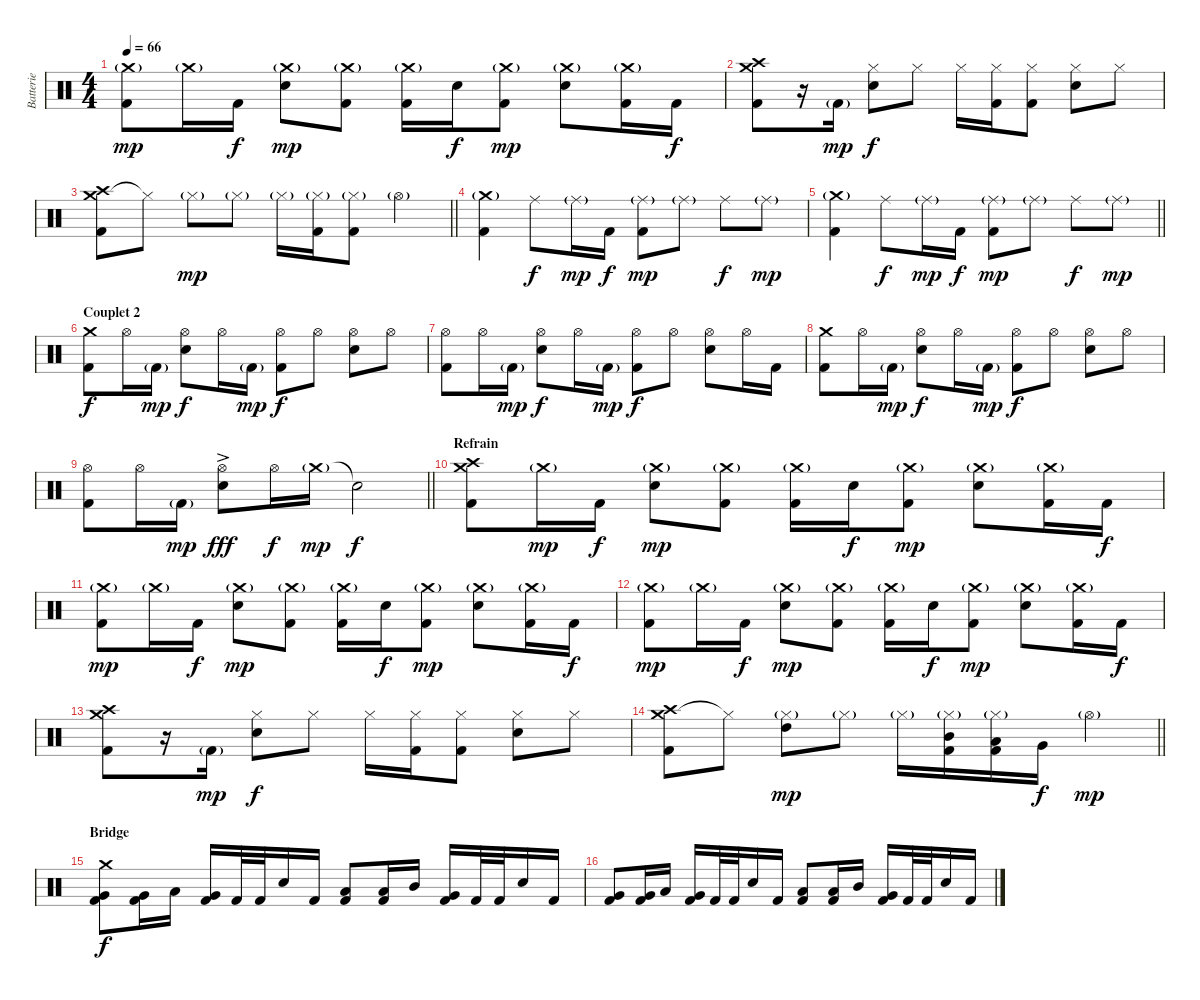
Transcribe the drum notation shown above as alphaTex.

\track ("Batterie" "Batterie") {instrument percussion}
\staff {score}
\articulation defaults
\ts (4 4)
\tempo 66
\clef neutral
\ks c
("Crash medium (hit)"{g} "Kick (hit) 2").8{dy mp} "Crash medium (hit)"{g}.16 "Kick (hit) 2".16{dy f} ("Crash medium (hit)"{g} "Electric Snare (hit)").8{dy mp} ("Crash medium (hit)"{g} "Kick (hit) 2").8 ("Crash medium (hit)"{g} "Kick (hit) 2").16 "Electric Snare (hit)".16{dy f} ("Crash medium (hit)"{g} "Kick (hit) 2").8{dy mp} ("Crash medium (hit)"{g} "Electric Snare (hit)").8 ("Crash medium (hit)"{g} "Kick (hit) 2").16 "Kick (hit) 2".16{dy f} |
("Crash medium (hit)" "Crash high (hit)" "Kick (hit) 2").8 r.16 "Kick (hit) 2"{g}.16{dy mp} ("Hi-Hat (closed)" "Electric Snare (hit)").8{dy f} "Hi-Hat (closed)".8 "Hi-Hat (closed)".16 ("Hi-Hat (closed)" "Kick (hit) 2").16 ("Hi-Hat (closed)" "Kick (hit) 2").8 ("Hi-Hat (closed)" "Electric Snare (hit)").8 "Hi-Hat (closed)".8 |
\barLineRight lightlight
("Crash medium (hit)" "Crash high (hit)" "Kick (hit) 2").8 "Hi-Hat (closed)"{t}.8 "Hi-Hat (closed)"{g}.8{dy mp} "Hi-Hat (closed)"{g}.8 "Hi-Hat (closed)"{g}.16 ("Hi-Hat (closed)"{g} "Kick (hit) 2").16 ("Hi-Hat (closed)"{g} "Kick (hit) 2").8 "Hi-Hat (open)"{g}.4 |
("Crash medium (hit)"{g} "Kick (hit) 2").4 "Ride (middle)".8{dy f} "Ride (middle)"{g}.16{dy mp} "Kick (hit) 2".16{dy f} ("Ride (middle)"{g} "Kick (hit) 2").8{dy mp} "Ride (middle)"{g}.8 "Ride (middle)".8{dy f} "Ride (middle)"{g}.8{dy mp} |
\barLineRight lightlight
("Crash medium (hit)"{g} "Kick (hit) 2").4 "Ride (middle)".8{dy f} "Ride (middle)"{g}.16{dy mp} "Kick (hit) 2".16{dy f} ("Ride (middle)"{g} "Kick (hit) 2").8{dy mp} "Ride (middle)"{g}.8 "Ride (middle)".8{dy f} "Ride (middle)"{g}.8{dy mp} |
\section ("" "Couplet 2")
("Crash medium (hit)" "Kick (hit) 2").8{dy f} "Hi-Hat (open)".16 "Kick (hit) 2"{g}.16{dy mp} ("Hi-Hat (open)" "Electric Snare (hit)").8{dy f} "Hi-Hat (open)".16 "Kick (hit) 2"{g}.16{dy mp} ("Hi-Hat (open)" "Kick (hit) 2").8{dy f} "Hi-Hat (open)".8 ("Hi-Hat (open)" "Electric Snare (hit)").8 "Hi-Hat (open)".8 |
("Hi-Hat (open)" "Kick (hit) 2").8 "Hi-Hat (open)".16 "Kick (hit) 2"{g}.16{dy mp} ("Hi-Hat (open)" "Electric Snare (hit)").8{dy f} "Hi-Hat (open)".16 "Kick (hit) 2"{g}.16{dy mp} ("Hi-Hat (open)" "Kick (hit) 2").8{dy f} "Hi-Hat (open)".8 ("Hi-Hat (open)" "Electric Snare (hit)").8 "Hi-Hat (open)".16 "Kick (hit) 2".16 |
("Crash medium (hit)" "Kick (hit) 2").8 "Hi-Hat (open)".16 "Kick (hit) 2"{g}.16{dy mp} ("Hi-Hat (open)" "Electric Snare (hit)").8{dy f} "Hi-Hat (open)".16 "Kick (hit) 2"{g}.16{dy mp} ("Hi-Hat (open)" "Kick (hit) 2").8{dy f} "Hi-Hat (open)".8 ("Hi-Hat (open)" "Electric Snare (hit)").8 "Hi-Hat (open)".8 |
\barLineRight lightlight
("Hi-Hat (open)" "Kick (hit) 2").8 "Hi-Hat (open)".16 "Kick (hit) 2"{g}.16{dy mp} ("Hi-Hat (open)"{ac} "Electric Snare (hit)").8{dy fff} "Hi-Hat (open)".16{dy f} "Crash medium (hit)"{g}.16{dy mp} "Snare (hit)"{t}.2{dy f} |
\section ("" "Refrain")
("Crash medium (hit)" "Crash high (hit)" "Kick (hit) 2").8 "Crash medium (hit)"{g}.16{dy mp} "Kick (hit) 2".16{dy f} ("Crash medium (hit)"{g} "Electric Snare (hit)").8{dy mp} ("Crash medium (hit)"{g} "Kick (hit) 2").8 ("Crash medium (hit)"{g} "Kick (hit) 2").16 "Electric Snare (hit)".16{dy f} ("Crash medium (hit)"{g} "Kick (hit) 2").8{dy mp} ("Crash medium (hit)"{g} "Electric Snare (hit)").8 ("Crash medium (hit)"{g} "Kick (hit) 2").16 "Kick (hit) 2".16{dy f} |
("Crash medium (hit)"{g} "Kick (hit) 2").8{dy mp} "Crash medium (hit)"{g}.16 "Kick (hit) 2".16{dy f} ("Crash medium (hit)"{g} "Electric Snare (hit)").8{dy mp} ("Crash medium (hit)"{g} "Kick (hit) 2").8 ("Crash medium (hit)"{g} "Kick (hit) 2").16 "Electric Snare (hit)".16{dy f} ("Crash medium (hit)"{g} "Kick (hit) 2").8{dy mp} ("Crash medium (hit)"{g} "Electric Snare (hit)").8 ("Crash medium (hit)"{g} "Kick (hit) 2").16 "Kick (hit) 2".16{dy f} |
("Crash medium (hit)"{g} "Kick (hit) 2").8{dy mp} "Crash medium (hit)"{g}.16 "Kick (hit) 2".16{dy f} ("Crash medium (hit)"{g} "Electric Snare (hit)").8{dy mp} ("Crash medium (hit)"{g} "Kick (hit) 2").8 ("Crash medium (hit)"{g} "Kick (hit) 2").16 "Electric Snare (hit)".16{dy f} ("Crash medium (hit)"{g} "Kick (hit) 2").8{dy mp} ("Crash medium (hit)"{g} "Electric Snare (hit)").8 ("Crash medium (hit)"{g} "Kick (hit) 2").16 "Kick (hit) 2".16{dy f} |
("Crash medium (hit)" "Crash high (hit)" "Kick (hit) 2").8 r.16 "Kick (hit) 2"{g}.16{dy mp} ("Hi-Hat (closed)" "Electric Snare (hit)").8{dy f} "Hi-Hat (closed)".8 "Hi-Hat (closed)".16 ("Hi-Hat (closed)" "Kick (hit) 2").16 ("Hi-Hat (closed)" "Kick (hit) 2").8 ("Hi-Hat (closed)" "Electric Snare (hit)").8 "Hi-Hat (closed)".8 |
\barLineRight lightlight
("Crash medium (hit)" "Crash high (hit)" "Kick (hit) 2").8 "Hi-Hat (closed)"{t}.8 ("Hi-Hat (closed)"{g} "High Tom (hit)").8{dy mp} "Hi-Hat (closed)"{g}.8 "Hi-Hat (closed)"{g}.16 ("Hi-Hat (closed)"{g} "Mid Tom (hit)" "Kick (hit) 2").16 ("Hi-Hat (closed)"{g} "Low Tom (hit)" "Kick (hit) 2").16 "Very Low Tom (hit)".16{dy f} "Hi-Hat (open)"{g}.4{dy mp} |
\section ("" "Bridge")
("Crash medium (hit)" "Very Low Tom (hit)" "Kick (hit) 2").8{dy f} ("Very Low Tom (hit)" "Kick (hit) 2").16 "Low Tom (hit)".16 ("Very Low Tom (hit)" "Kick (hit) 2").16 "Kick (hit) 2".32 "Kick (hit) 2".32 "Electric Snare (hit)".16 "Kick (hit) 2".16 ("Low Tom (hit)" "Kick (hit) 2").8 ("Low Tom (hit)" "Kick (hit) 2").16 "Mid Tom (hit)".16 ("Very Low Tom (hit)" "Kick (hit) 2").16 "Kick (hit) 2".32 "Kick (hit) 2".32 "Electric Snare (hit)".16 "Kick (hit) 2".16 |
("Very Low Tom (hit)" "Kick (hit) 2").8 ("Very Low Tom (hit)" "Kick (hit) 2").16 "Low Tom (hit)".16 ("Very Low Tom (hit)" "Kick (hit) 2").16 "Kick (hit) 2".32 "Kick (hit) 2".32 "Electric Snare (hit)".16 "Kick (hit) 2".16 ("Low Tom (hit)" "Kick (hit) 2").8 ("Low Tom (hit)" "Kick (hit) 2").16 "Mid Tom (hit)".16 ("Very Low Tom (hit)" "Kick (hit) 2").16 "Kick (hit) 2".32 "Kick (hit) 2".32 "Electric Snare (hit)".16 "Kick (hit) 2".16
